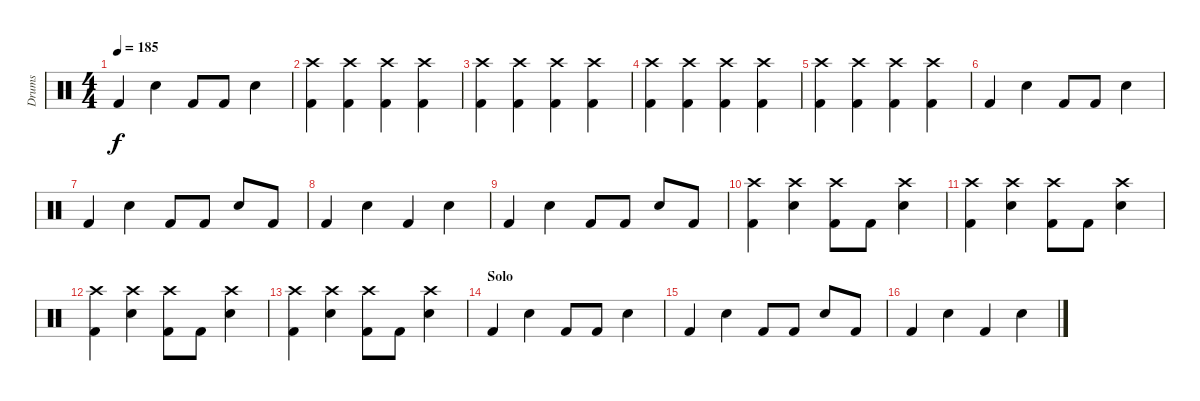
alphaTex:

\track ("Drums" "Drums") {instrument percussion}
\staff {score}
\articulation defaults
\ts (4 4)
\tempo 185
\clef neutral
\ks c "Kick (hit) 2".4{dy f} "Electric Snare (hit)".4 "Kick (hit) 2".8 "Kick (hit) 2".8 "Electric Snare (hit)".4
|
("Crash high (hit)" "Kick (hit) 2").4 ("Crash high (hit)" "Kick (hit) 2").4 ("Crash high (hit)" "Kick (hit) 2").4 ("Crash high (hit)" "Kick (hit) 2").4 |
("Crash high (hit)" "Kick (hit) 2").4 ("Crash high (hit)" "Kick (hit) 2").4 ("Crash high (hit)" "Kick (hit) 2").4 ("Crash high (hit)" "Kick (hit) 2").4 |
("Crash high (hit)" "Kick (hit) 2").4 ("Crash high (hit)" "Kick (hit) 2").4 ("Crash high (hit)" "Kick (hit) 2").4 ("Crash high (hit)" "Kick (hit) 2").4 |
("Crash high (hit)" "Kick (hit) 2").4 ("Crash high (hit)" "Kick (hit) 2").4 ("Crash high (hit)" "Kick (hit) 2").4 ("Crash high (hit)" "Kick (hit) 2").4 |
"Kick (hit) 2".4 "Electric Snare (hit)".4 "Kick (hit) 2".8 "Kick (hit) 2".8 "Electric Snare (hit)".4 |
"Kick (hit) 2".4 "Electric Snare (hit)".4 "Kick (hit) 2".8 "Kick (hit) 2".8 "Electric Snare (hit)".8 "Kick (hit) 2".8 |
"Kick (hit) 2".4 "Electric Snare (hit)".4 "Kick (hit) 2".4 "Electric Snare (hit)".4 |
"Kick (hit) 2".4 "Electric Snare (hit)".4 "Kick (hit) 2".8 "Kick (hit) 2".8 "Electric Snare (hit)".8 "Kick (hit) 2".8 |
("Crash high (hit)" "Kick (hit) 2").4 ("Crash high (hit)" "Electric Snare (hit)").4 ("Crash high (hit)" "Kick (hit) 2").8 "Kick (hit) 2".8 ("Crash high (hit)" "Electric Snare (hit)").4 |
("Crash high (hit)" "Kick (hit) 2").4 ("Crash high (hit)" "Electric Snare (hit)").4 ("Crash high (hit)" "Kick (hit) 2").8 "Kick (hit) 2".8 ("Crash high (hit)" "Electric Snare (hit)").4 |
("Crash high (hit)" "Kick (hit) 2").4 ("Crash high (hit)" "Electric Snare (hit)").4 ("Crash high (hit)" "Kick (hit) 2").8 "Kick (hit) 2".8 ("Crash high (hit)" "Electric Snare (hit)").4 |
("Crash high (hit)" "Kick (hit) 2").4 ("Crash high (hit)" "Electric Snare (hit)").4 ("Crash high (hit)" "Kick (hit) 2").8 "Kick (hit) 2".8 ("Crash high (hit)" "Electric Snare (hit)").4 |
\section ("" "Solo")
"Kick (hit) 2".4 "Electric Snare (hit)".4 "Kick (hit) 2".8 "Kick (hit) 2".8 "Electric Snare (hit)".4 |
"Kick (hit) 2".4 "Electric Snare (hit)".4 "Kick (hit) 2".8 "Kick (hit) 2".8 "Electric Snare (hit)".8 "Kick (hit) 2".8 |
"Kick (hit) 2".4 "Electric Snare (hit)".4 "Kick (hit) 2".4 "Electric Snare (hit)".4
